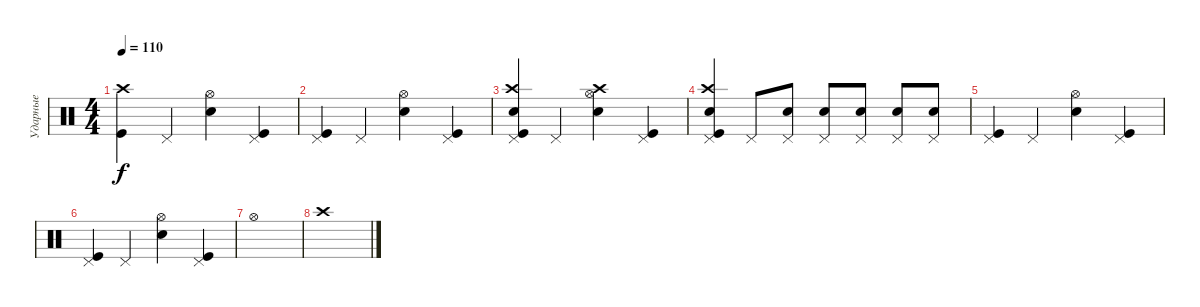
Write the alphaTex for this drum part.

\track ("Ударные" "Ударные") {instrument percussion}
\staff {score}
\articulation defaults
\ts (4 4)
\tempo 110
\clef neutral
\ks c
("Kick (hit)" "Crash high (hit)").4{dy f} "Pedal Hi-Hat (hit)".4 ("Hi-Hat (open)" "Snare (hit) 2").4 ("Kick (hit)" "Pedal Hi-Hat (hit)").4 |
("Kick (hit)" "Pedal Hi-Hat (hit)").4 "Pedal Hi-Hat (hit)".4 ("Hi-Hat (open)" "Snare (hit) 2").4 ("Kick (hit)" "Pedal Hi-Hat (hit)").4 |
("Crash high (hit)" "Kick (hit)" "Pedal Hi-Hat (hit)" "Snare (hit) 2").4 "Pedal Hi-Hat (hit)".4 ("Crash high (hit)" "Hi-Hat (open)" "Snare (hit) 2").4 ("Kick (hit)" "Pedal Hi-Hat (hit)").4 |
("Crash high (hit)" "Kick (hit)" "Pedal Hi-Hat (hit)" "Snare (hit) 2").4 "Pedal Hi-Hat (hit)".8 ("Pedal Hi-Hat (hit)" "Snare (hit) 2").8 ("Pedal Hi-Hat (hit)" "Snare (hit) 2").8 ("Pedal Hi-Hat (hit)" "Snare (hit) 2").8 ("Pedal Hi-Hat (hit)" "Snare (hit) 2").8 ("Pedal Hi-Hat (hit)" "Snare (hit) 2").8 |
("Kick (hit)" "Pedal Hi-Hat (hit)").4 "Pedal Hi-Hat (hit)".4 ("Hi-Hat (open)" "Snare (hit) 2").4 ("Kick (hit)" "Pedal Hi-Hat (hit)").4 |
("Kick (hit)" "Pedal Hi-Hat (hit)").4 "Pedal Hi-Hat (hit)".4 ("Hi-Hat (open)" "Snare (hit) 2").4 ("Kick (hit)" "Pedal Hi-Hat (hit)").4 |
"Hi-Hat (open)".1 |
"Crash high (hit)".1
